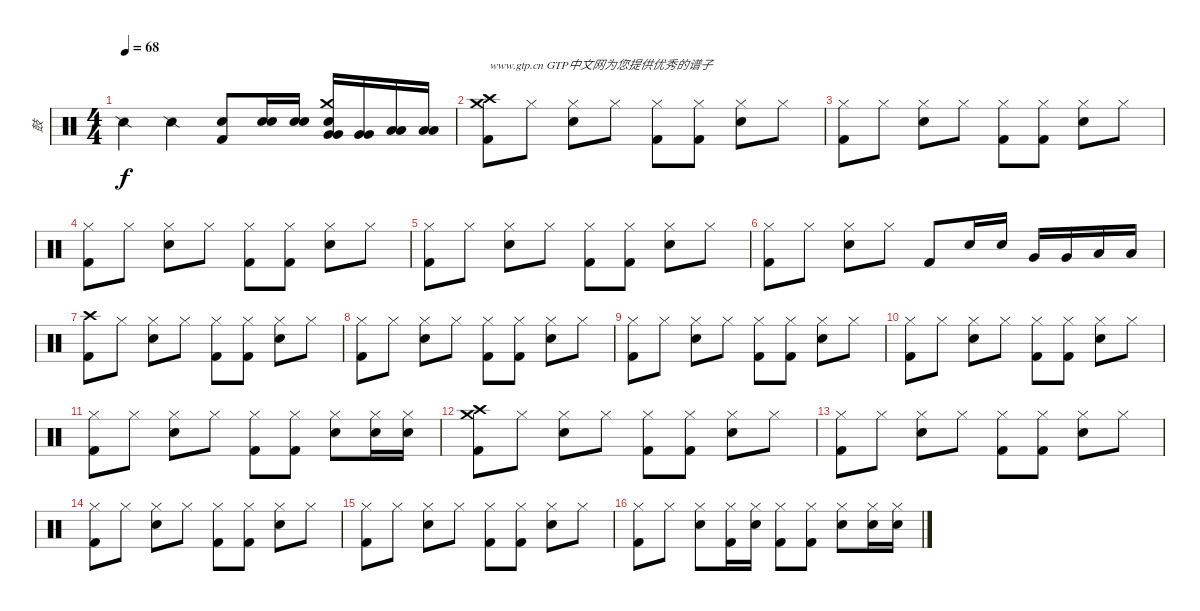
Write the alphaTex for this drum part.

\track ("鼓" "鼓") {instrument percussion}
\staff {score}
\articulation defaults
\ts (4 4)
\tempo 68
\clef neutral
\ks c "Snare (side stick) 2".4{dy f} "Snare (side stick) 2".4
("Kick (hit) 2" "Snare (hit) 2").8 ("Electric Snare (hit)" "Electric Snare (hit)").16 ("Electric Snare (hit)" "Electric Snare (hit)").16 ("Crash medium (hit)" "Very Low Tom (hit)" "Very Low Tom (hit)" "Snare (hit) 2").16 ("Very Low Tom (hit)" "Very Low Tom (hit)").16 ("Low Tom (hit)" "Low Tom (hit)").16 ("Low Tom (hit)" "Low Tom (hit)").16 |
("Crash medium (hit)" "Crash high (hit)" "Kick (hit) 2").8{txt "www.gtp.cn GTP中文网为您提供优秀的谱子"} "Hi-Hat (closed)".8 ("Snare (hit) 2" "Hi-Hat (closed)").8 "Hi-Hat (closed)".8 ("Kick (hit) 2" "Hi-Hat (closed)").8 ("Kick (hit) 2" "Hi-Hat (closed)").8 ("Snare (hit) 2" "Hi-Hat (closed)").8 "Hi-Hat (closed)".8 |
("Kick (hit) 2" "Hi-Hat (closed)").8 "Hi-Hat (closed)".8 ("Snare (hit) 2" "Hi-Hat (closed)").8 "Hi-Hat (closed)".8 ("Kick (hit) 2" "Hi-Hat (closed)").8 ("Kick (hit) 2" "Hi-Hat (closed)").8 ("Snare (hit) 2" "Hi-Hat (closed)").8 "Hi-Hat (closed)".8 |
("Kick (hit) 2" "Hi-Hat (closed)").8 "Hi-Hat (closed)".8 ("Snare (hit) 2" "Hi-Hat (closed)").8 "Hi-Hat (closed)".8 ("Kick (hit) 2" "Hi-Hat (closed)").8 ("Kick (hit) 2" "Hi-Hat (closed)").8 ("Snare (hit) 2" "Hi-Hat (closed)").8 "Hi-Hat (closed)".8 |
("Kick (hit) 2" "Hi-Hat (closed)").8 "Hi-Hat (closed)".8 ("Snare (hit) 2" "Hi-Hat (closed)").8 "Hi-Hat (closed)".8 ("Kick (hit) 2" "Hi-Hat (closed)").8 ("Kick (hit) 2" "Hi-Hat (closed)").8 ("Snare (hit) 2" "Hi-Hat (closed)").8 "Hi-Hat (closed)".8 |
("Kick (hit) 2" "Hi-Hat (closed)").8 "Hi-Hat (closed)".8 ("Snare (hit) 2" "Hi-Hat (closed)").8 "Hi-Hat (closed)".8 "Kick (hit) 2".8 "Electric Snare (hit)".16 "Electric Snare (hit)".16 "Very Low Tom (hit)".16 "Very Low Tom (hit)".16 "Low Tom (hit)".16 "Low Tom (hit)".16 |
("Kick (hit) 2" "Crash high (hit)").8 "Hi-Hat (closed)".8 ("Snare (hit) 2" "Hi-Hat (closed)").8 "Hi-Hat (closed)".8 ("Kick (hit) 2" "Hi-Hat (closed)").8 ("Kick (hit) 2" "Hi-Hat (closed)").8 ("Snare (hit) 2" "Hi-Hat (closed)").8 "Hi-Hat (closed)".8 |
("Kick (hit) 2" "Hi-Hat (closed)").8 "Hi-Hat (closed)".8 ("Snare (hit) 2" "Hi-Hat (closed)").8 "Hi-Hat (closed)".8 ("Kick (hit) 2" "Hi-Hat (closed)").8 ("Kick (hit) 2" "Hi-Hat (closed)").8 ("Snare (hit) 2" "Hi-Hat (closed)").8 "Hi-Hat (closed)".8 |
("Kick (hit) 2" "Hi-Hat (closed)").8 "Hi-Hat (closed)".8 ("Snare (hit) 2" "Hi-Hat (closed)").8 "Hi-Hat (closed)".8 ("Kick (hit) 2" "Hi-Hat (closed)").8 ("Kick (hit) 2" "Hi-Hat (closed)").8 ("Snare (hit) 2" "Hi-Hat (closed)").8 "Hi-Hat (closed)".8 |
("Kick (hit) 2" "Hi-Hat (closed)").8 "Hi-Hat (closed)".8 ("Snare (hit) 2" "Hi-Hat (closed)").8 "Hi-Hat (closed)".8 ("Kick (hit) 2" "Hi-Hat (closed)").8 ("Kick (hit) 2" "Hi-Hat (closed)").8 ("Snare (hit) 2" "Hi-Hat (closed)").8 "Hi-Hat (closed)".8 |
("Kick (hit) 2" "Hi-Hat (closed)").8 "Hi-Hat (closed)".8 ("Snare (hit) 2" "Hi-Hat (closed)").8 "Hi-Hat (closed)".8 ("Kick (hit) 2" "Hi-Hat (closed)").8 ("Kick (hit) 2" "Hi-Hat (closed)").8 ("Electric Snare (hit)" "Hi-Hat (closed)").8 ("Electric Snare (hit)" "Hi-Hat (closed)").16 ("Electric Snare (hit)" "Hi-Hat (closed)").16 |
("Kick (hit) 2" "Crash medium (hit)" "Crash high (hit)").8 "Hi-Hat (closed)".8 ("Snare (hit) 2" "Hi-Hat (closed)").8 "Hi-Hat (closed)".8 ("Kick (hit) 2" "Hi-Hat (closed)").8 ("Kick (hit) 2" "Hi-Hat (closed)").8 ("Snare (hit) 2" "Hi-Hat (closed)").8 "Hi-Hat (closed)".8 |
("Kick (hit) 2" "Hi-Hat (closed)").8 "Hi-Hat (closed)".8 ("Snare (hit) 2" "Hi-Hat (closed)").8 "Hi-Hat (closed)".8 ("Kick (hit) 2" "Hi-Hat (closed)").8 ("Kick (hit) 2" "Hi-Hat (closed)").8 ("Snare (hit) 2" "Hi-Hat (closed)").8 "Hi-Hat (closed)".8 |
("Kick (hit) 2" "Hi-Hat (closed)").8 "Hi-Hat (closed)".8 ("Snare (hit) 2" "Hi-Hat (closed)").8 "Hi-Hat (closed)".8 ("Kick (hit) 2" "Hi-Hat (closed)").8 ("Kick (hit) 2" "Hi-Hat (closed)").8 ("Snare (hit) 2" "Hi-Hat (closed)").8 "Hi-Hat (closed)".8 |
("Kick (hit) 2" "Hi-Hat (closed)").8 "Hi-Hat (closed)".8 ("Snare (hit) 2" "Hi-Hat (closed)").8 "Hi-Hat (closed)".8 ("Kick (hit) 2" "Hi-Hat (closed)").8 ("Kick (hit) 2" "Hi-Hat (closed)").8 ("Snare (hit) 2" "Hi-Hat (closed)").8 "Hi-Hat (closed)".8 |
("Kick (hit) 2" "Hi-Hat (closed)").8 "Hi-Hat (closed)".8 ("Snare (hit) 2" "Hi-Hat (closed)").8 ("Kick (hit) 2" "Hi-Hat (closed)").16 ("Snare (hit) 2" "Hi-Hat (closed)").16 ("Kick (hit) 2" "Hi-Hat (closed)").8 ("Kick (hit) 2" "Hi-Hat (closed)").8 ("Snare (hit) 2" "Hi-Hat (closed)").8 ("Snare (hit) 2" "Hi-Hat (closed)").16 ("Snare (hit) 2" "Hi-Hat (closed)").16
